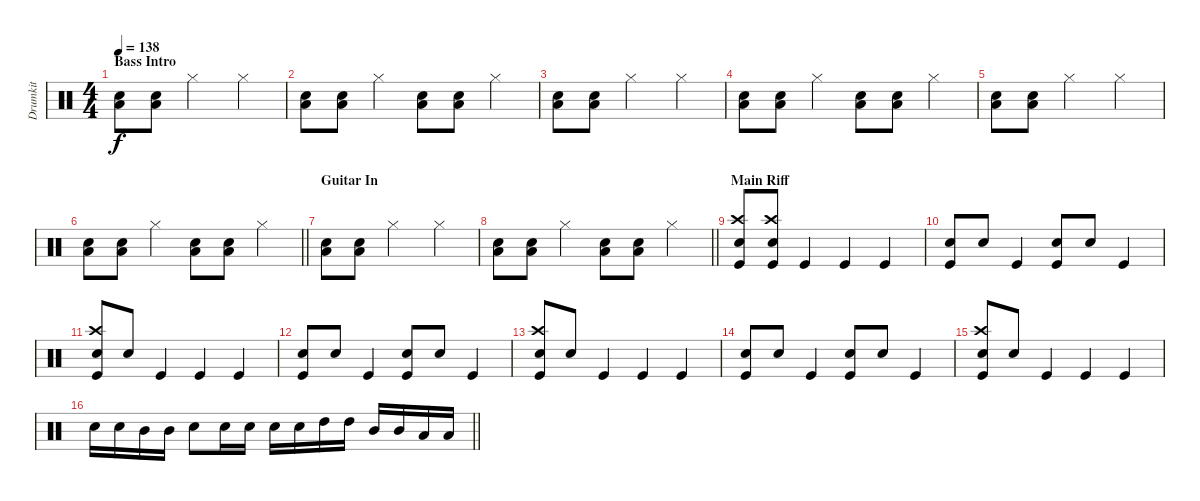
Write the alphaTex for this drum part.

\track ("Drumkit" "Drumkit") {instrument percussion}
\staff {score}
\articulation defaults
\ts (4 4)
\section ("" "Bass Intro")
\tempo 138
\clef neutral
\ks c
("Low Floor Tom (hit)" "Snare (hit) 2").8{dy f} ("Low Floor Tom (hit)" "Snare (hit) 2").8 "Hi-Hat (closed)".2 "Hi-Hat (closed)".4 |
("Low Floor Tom (hit)" "Snare (hit) 2").8 ("Low Floor Tom (hit)" "Snare (hit) 2").8 "Hi-Hat (closed)".4 ("Low Floor Tom (hit)" "Snare (hit) 2").8 ("Low Floor Tom (hit)" "Snare (hit) 2").8 "Hi-Hat (closed)".4 |
("Low Floor Tom (hit)" "Snare (hit) 2").8 ("Low Floor Tom (hit)" "Snare (hit) 2").8 "Hi-Hat (closed)".2 "Hi-Hat (closed)".4 |
("Low Floor Tom (hit)" "Snare (hit) 2").8 ("Low Floor Tom (hit)" "Snare (hit) 2").8 "Hi-Hat (closed)".4 ("Low Floor Tom (hit)" "Snare (hit) 2").8 ("Low Floor Tom (hit)" "Snare (hit) 2").8 "Hi-Hat (closed)".4 |
("Low Floor Tom (hit)" "Snare (hit) 2").8 ("Low Floor Tom (hit)" "Snare (hit) 2").8 "Hi-Hat (closed)".2 "Hi-Hat (closed)".4 |
\barLineRight lightlight
("Low Floor Tom (hit)" "Snare (hit) 2").8 ("Low Floor Tom (hit)" "Snare (hit) 2").8 "Hi-Hat (closed)".4 ("Low Floor Tom (hit)" "Snare (hit) 2").8 ("Low Floor Tom (hit)" "Snare (hit) 2").8 "Hi-Hat (closed)".4 |
\section ("" "Guitar In")
("Low Floor Tom (hit)" "Snare (hit) 2").8 ("Low Floor Tom (hit)" "Snare (hit) 2").8 "Hi-Hat (closed)".2 "Hi-Hat (closed)".4 |
\barLineRight lightlight
("Low Floor Tom (hit)" "Snare (hit) 2").8 ("Low Floor Tom (hit)" "Snare (hit) 2").8 "Hi-Hat (closed)".4 ("Low Floor Tom (hit)" "Snare (hit) 2").8 ("Low Floor Tom (hit)" "Snare (hit) 2").8 "Hi-Hat (closed)".4 |
\section ("" "Main Riff")
("Snare (hit) 2" "Crash high (hit)" "Kick (hit)").8 ("Snare (hit) 2" "Crash high (hit)" "Kick (hit)").8 "Kick (hit)".4 "Kick (hit)".4 "Kick (hit)".4 |
("Snare (hit) 2" "Kick (hit)").8 "Snare (hit) 2".8 "Kick (hit)".4 ("Snare (hit) 2" "Kick (hit)").8 "Snare (hit) 2".8 "Kick (hit)".4 |
("Snare (hit) 2" "Crash high (hit)" "Kick (hit)").8 "Snare (hit) 2".8 "Kick (hit)".4 "Kick (hit)".4 "Kick (hit)".4 |
("Snare (hit) 2" "Kick (hit)").8 "Snare (hit) 2".8 "Kick (hit)".4 ("Snare (hit) 2" "Kick (hit)").8 "Snare (hit) 2".8 "Kick (hit)".4 |
("Snare (hit) 2" "Crash high (hit)" "Kick (hit)").8 "Snare (hit) 2".8 "Kick (hit)".4 "Kick (hit)".4 "Kick (hit)".4 |
("Snare (hit) 2" "Kick (hit)").8 "Snare (hit) 2".8 "Kick (hit)".4 ("Snare (hit) 2" "Kick (hit)").8 "Snare (hit) 2".8 "Kick (hit)".4 |
("Snare (hit) 2" "Crash high (hit)" "Kick (hit)").8 "Snare (hit) 2".8 "Kick (hit)".4 "Kick (hit)".4 "Kick (hit)".4 |
\barLineRight lightlight "Snare (hit) 2".16 "Snare (hit) 2".16 "Mid Tom (hit)".16 "Mid Tom (hit)".16 "Snare (hit) 2".8 "Snare (hit) 2".16 "Snare (hit) 2".16 "Snare (hit) 2".16 "Snare (hit) 2".16 "High Tom (hit)".16 "High Tom (hit)".16 "Mid Tom (hit)".16 "Mid Tom (hit)".16 "Low Tom (hit)".16 "Low Tom (hit)".16
